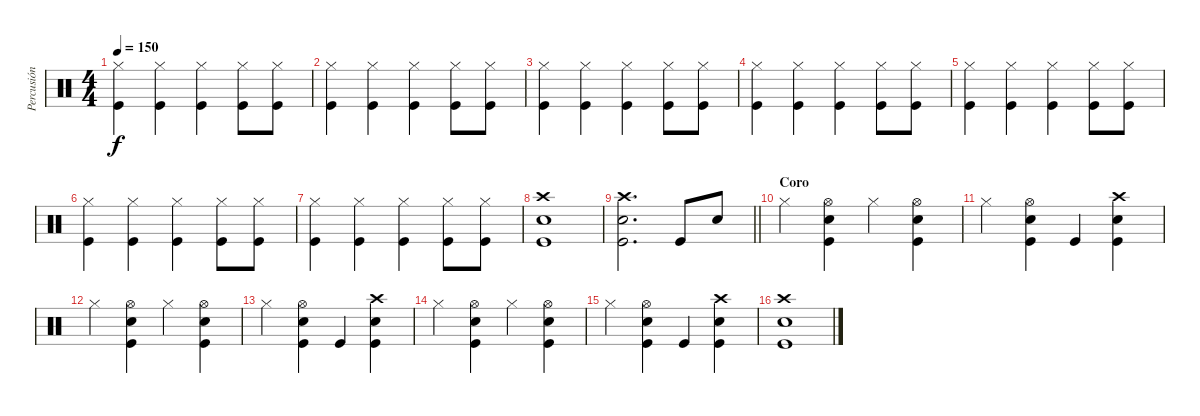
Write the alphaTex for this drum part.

\track ("Percusión" "Percusión") {instrument percussion}
\staff {score}
\articulation defaults
\ts (4 4)
\tempo 150
\clef neutral
\ks c
("Hi-Hat (closed)" "Kick (hit)").4{dy f} ("Hi-Hat (closed)" "Kick (hit)").4 ("Hi-Hat (closed)" "Kick (hit)").4 ("Hi-Hat (closed)" "Kick (hit)").8 ("Hi-Hat (closed)" "Kick (hit)").8 |
("Hi-Hat (closed)" "Kick (hit)").4 ("Hi-Hat (closed)" "Kick (hit)").4 ("Hi-Hat (closed)" "Kick (hit)").4 ("Hi-Hat (closed)" "Kick (hit)").8 ("Hi-Hat (closed)" "Kick (hit)").8 |
("Hi-Hat (closed)" "Kick (hit)").4 ("Hi-Hat (closed)" "Kick (hit)").4 ("Hi-Hat (closed)" "Kick (hit)").4 ("Hi-Hat (closed)" "Kick (hit)").8 ("Hi-Hat (closed)" "Kick (hit)").8 |
("Hi-Hat (closed)" "Kick (hit)").4 ("Hi-Hat (closed)" "Kick (hit)").4 ("Hi-Hat (closed)" "Kick (hit)").4 ("Hi-Hat (closed)" "Kick (hit)").8 ("Hi-Hat (closed)" "Kick (hit)").8 |
("Hi-Hat (closed)" "Kick (hit)").4 ("Hi-Hat (closed)" "Kick (hit)").4 ("Hi-Hat (closed)" "Kick (hit)").4 ("Hi-Hat (closed)" "Kick (hit)").8 ("Hi-Hat (closed)" "Kick (hit)").8 |
("Hi-Hat (closed)" "Kick (hit)").4 ("Hi-Hat (closed)" "Kick (hit)").4 ("Hi-Hat (closed)" "Kick (hit)").4 ("Hi-Hat (closed)" "Kick (hit)").8 ("Hi-Hat (closed)" "Kick (hit)").8 |
("Hi-Hat (closed)" "Kick (hit)").4 ("Hi-Hat (closed)" "Kick (hit)").4 ("Hi-Hat (closed)" "Kick (hit)").4 ("Hi-Hat (closed)" "Kick (hit)").8 ("Hi-Hat (closed)" "Kick (hit)").8 |
("Kick (hit)" "Snare (hit) 2" "Crash high (hit)").1 |
\barLineRight lightlight
("Kick (hit)" "Snare (hit) 2" "Crash high (hit)").2{d} "Kick (hit)".8 "Snare (hit) 2".8 |
\section ("" "Coro")
"Hi-Hat (closed)".4 ("Kick (hit)" "Snare (hit) 2" "Hi-Hat (open)").4 "Hi-Hat (closed)".4 ("Kick (hit)" "Snare (hit) 2" "Hi-Hat (open)").4 |
"Hi-Hat (closed)".4 ("Kick (hit)" "Snare (hit) 2" "Hi-Hat (open)").4 "Kick (hit)".4 ("Kick (hit)" "Snare (hit) 2" "Crash high (hit)").4 |
"Hi-Hat (closed)".4 ("Kick (hit)" "Snare (hit) 2" "Hi-Hat (open)").4 "Hi-Hat (closed)".4 ("Kick (hit)" "Snare (hit) 2" "Hi-Hat (open)").4 |
"Hi-Hat (closed)".4 ("Kick (hit)" "Snare (hit) 2" "Hi-Hat (open)").4 "Kick (hit)".4 ("Kick (hit)" "Snare (hit) 2" "Crash high (hit)").4 |
"Hi-Hat (closed)".4 ("Kick (hit)" "Snare (hit) 2" "Hi-Hat (open)").4 "Hi-Hat (closed)".4 ("Kick (hit)" "Snare (hit) 2" "Hi-Hat (open)").4 |
"Hi-Hat (closed)".4 ("Kick (hit)" "Snare (hit) 2" "Hi-Hat (open)").4 "Kick (hit)".4 ("Kick (hit)" "Snare (hit) 2" "Crash high (hit)").4 |
("Kick (hit)" "Snare (hit) 2" "Crash high (hit)").1
